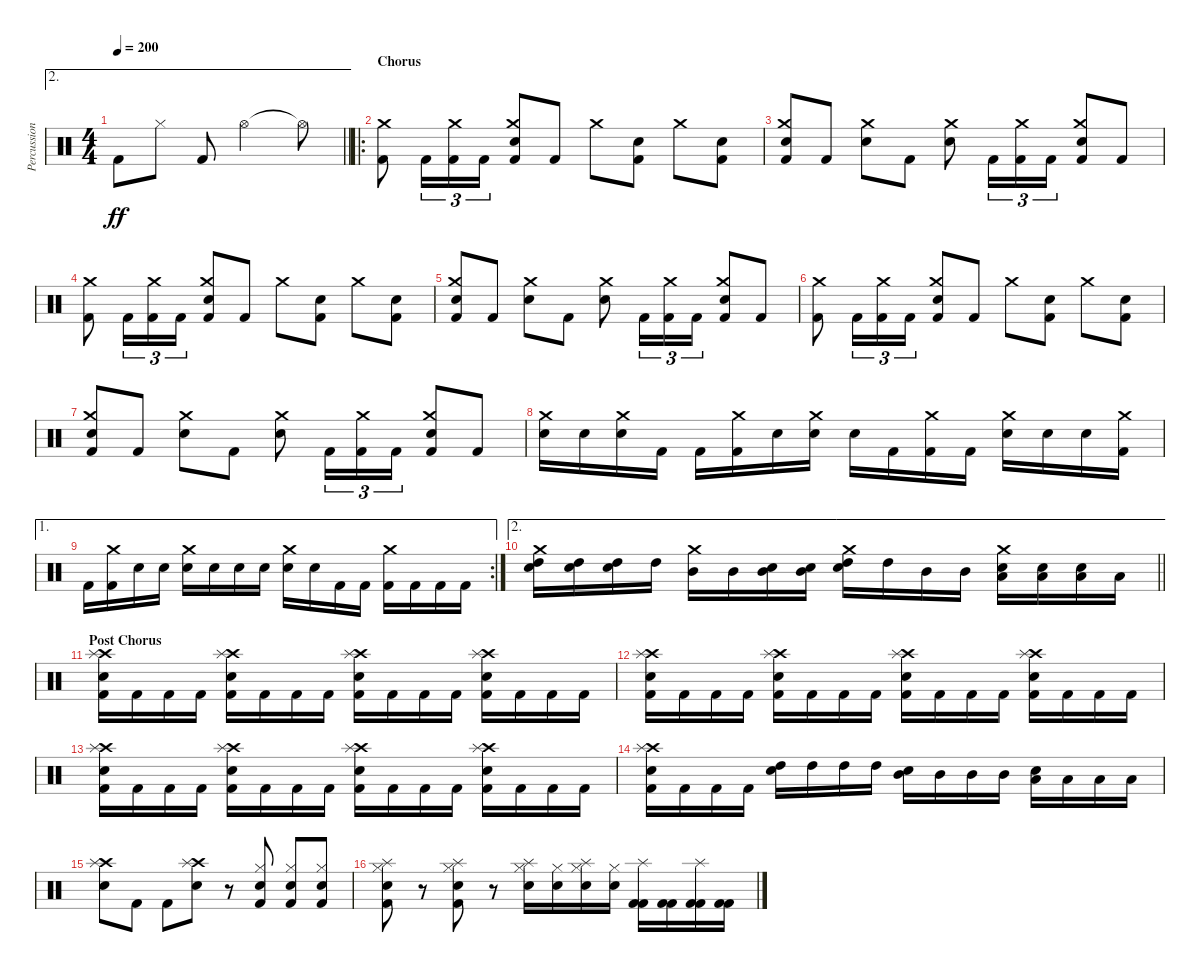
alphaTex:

\track ("Percussion" "Percussion") {instrument percussion}
\staff {score}
\articulation defaults
\ae 2
\ts (4 4)
\tempo 200
\clef neutral
\barLineRight lightlight
\ks c "Kick (hit) 2".8{dy ff} "Hi-Hat (closed)".8 "Kick (hit) 2".8 "Hi-Hat (open)".2 "Hi-Hat (open)"{t}.8
|
\ro
\section ("" "Chorus")
("Crash medium (hit)" "Kick (hit) 2").8 "Kick (hit) 2".16{tu (3 2)} ("Crash medium (hit)" "Kick (hit) 2").16{tu (3 2)} "Kick (hit) 2".16{tu (3 2)} ("Crash medium (hit)" "Electric Snare (hit)" "Kick (hit) 2").8 "Kick (hit) 2".8 "Crash medium (hit)".8 ("Electric Snare (hit)" "Kick (hit) 2").8 "Crash medium (hit)".8 ("Electric Snare (hit)" "Kick (hit) 2").8 |
("Crash medium (hit)" "Electric Snare (hit)" "Kick (hit) 2").8 "Kick (hit) 2".8 ("Crash medium (hit)" "Electric Snare (hit)").8 "Kick (hit) 2".8 ("Crash medium (hit)" "Electric Snare (hit)").8 "Kick (hit) 2".16{tu (3 2)} ("Crash medium (hit)" "Kick (hit) 2").16{tu (3 2)} "Kick (hit) 2".16{tu (3 2)} ("Crash medium (hit)" "Electric Snare (hit)" "Kick (hit) 2").8 "Kick (hit) 2".8 |
("Crash medium (hit)" "Kick (hit) 2").8 "Kick (hit) 2".16{tu (3 2)} ("Crash medium (hit)" "Kick (hit) 2").16{tu (3 2)} "Kick (hit) 2".16{tu (3 2)} ("Crash medium (hit)" "Electric Snare (hit)" "Kick (hit) 2").8 "Kick (hit) 2".8 "Crash medium (hit)".8 ("Electric Snare (hit)" "Kick (hit) 2").8 "Crash medium (hit)".8 ("Electric Snare (hit)" "Kick (hit) 2").8 |
("Crash medium (hit)" "Electric Snare (hit)" "Kick (hit) 2").8 "Kick (hit) 2".8 ("Crash medium (hit)" "Electric Snare (hit)").8 "Kick (hit) 2".8 ("Crash medium (hit)" "Electric Snare (hit)").8 "Kick (hit) 2".16{tu (3 2)} ("Crash medium (hit)" "Kick (hit) 2").16{tu (3 2)} "Kick (hit) 2".16{tu (3 2)} ("Crash medium (hit)" "Electric Snare (hit)" "Kick (hit) 2").8 "Kick (hit) 2".8 |
("Crash medium (hit)" "Kick (hit) 2").8 "Kick (hit) 2".16{tu (3 2)} ("Crash medium (hit)" "Kick (hit) 2").16{tu (3 2)} "Kick (hit) 2".16{tu (3 2)} ("Crash medium (hit)" "Electric Snare (hit)" "Kick (hit) 2").8 "Kick (hit) 2".8 "Crash medium (hit)".8 ("Electric Snare (hit)" "Kick (hit) 2").8 "Crash medium (hit)".8 ("Electric Snare (hit)" "Kick (hit) 2").8 |
("Crash medium (hit)" "Electric Snare (hit)" "Kick (hit) 2").8 "Kick (hit) 2".8 ("Crash medium (hit)" "Electric Snare (hit)").8 "Kick (hit) 2".8 ("Crash medium (hit)" "Electric Snare (hit)").8 "Kick (hit) 2".16{tu (3 2)} ("Crash medium (hit)" "Kick (hit) 2").16{tu (3 2)} "Kick (hit) 2".16{tu (3 2)} ("Crash medium (hit)" "Electric Snare (hit)" "Kick (hit) 2").8 "Kick (hit) 2".8 |
("Crash medium (hit)" "Electric Snare (hit)").16 "Electric Snare (hit)".16 ("Crash medium (hit)" "Electric Snare (hit)").16 "Kick (hit) 2".16 "Kick (hit) 2".16 ("Crash medium (hit)" "Kick (hit) 2").16 "Electric Snare (hit)".16 ("Crash medium (hit)" "Electric Snare (hit)").16 "Electric Snare (hit)".16 "Kick (hit) 2".16 ("Crash medium (hit)" "Kick (hit) 2").16 "Kick (hit) 2".16 ("Crash medium (hit)" "Electric Snare (hit)").16 "Electric Snare (hit)".16 "Electric Snare (hit)".16 ("Crash medium (hit)" "Kick (hit) 2").16 |
\ae 1
\rc 2 "Kick (hit) 2".16
("Crash medium (hit)" "Kick (hit) 2").16 "Electric Snare (hit)".16 "Electric Snare (hit)".16 ("Crash medium (hit)" "Electric Snare (hit)").16 "Electric Snare (hit)".16 "Electric Snare (hit)".16 "Electric Snare (hit)".16 ("Crash medium (hit)" "Electric Snare (hit)").16 "Electric Snare (hit)".16 "Kick (hit) 2".16 "Kick (hit) 2".16 ("Crash medium (hit)" "Kick (hit) 2").16 "Kick (hit) 2".16 "Kick (hit) 2".16 "Kick (hit) 2".16 |
\ae 2
\barLineRight lightlight
("Crash medium (hit)" "High Tom (hit)" "Electric Snare (hit)").16 ("High Tom (hit)" "Electric Snare (hit)").16 ("High Tom (hit)" "Electric Snare (hit)").16 "High Tom (hit)".16 ("Crash medium (hit)" "Mid Tom (hit)").16 "Mid Tom (hit)".16 ("Mid Tom (hit)" "Electric Snare (hit)").16 ("Mid Tom (hit)" "Electric Snare (hit)").16 ("Crash medium (hit)" "High Tom (hit)" "Electric Snare (hit)").16 "High Tom (hit)".16 "Mid Tom (hit)".16 "Mid Tom (hit)".16 ("Crash medium (hit)" "Low Tom (hit)" "Electric Snare (hit)").16 ("Low Tom (hit)" "Electric Snare (hit)").16 ("Low Tom (hit)" "Electric Snare (hit)").16 "Low Tom (hit)".16 |
\section ("" "Post Chorus")
("Crash high (hit)" "Splash (hit)" "Electric Snare (hit)" "Kick (hit) 2").16 "Kick (hit) 2".16 "Kick (hit) 2".16 "Kick (hit) 2".16 ("Crash high (hit)" "Splash (hit)" "Electric Snare (hit)" "Kick (hit) 2").16 "Kick (hit) 2".16 "Kick (hit) 2".16 "Kick (hit) 2".16 ("Crash high (hit)" "Splash (hit)" "Electric Snare (hit)" "Kick (hit) 2").16 "Kick (hit) 2".16 "Kick (hit) 2".16 "Kick (hit) 2".16 ("Crash high (hit)" "Splash (hit)" "Electric Snare (hit)" "Kick (hit) 2").16 "Kick (hit) 2".16 "Kick (hit) 2".16 "Kick (hit) 2".16 |
("Crash high (hit)" "Splash (hit)" "Electric Snare (hit)" "Kick (hit) 2").16 "Kick (hit) 2".16 "Kick (hit) 2".16 "Kick (hit) 2".16 ("Crash high (hit)" "Splash (hit)" "Electric Snare (hit)" "Kick (hit) 2").16 "Kick (hit) 2".16 "Kick (hit) 2".16 "Kick (hit) 2".16 ("Crash high (hit)" "Splash (hit)" "Electric Snare (hit)" "Kick (hit) 2").16 "Kick (hit) 2".16 "Kick (hit) 2".16 "Kick (hit) 2".16 ("Crash high (hit)" "Splash (hit)" "Electric Snare (hit)" "Kick (hit) 2").16 "Kick (hit) 2".16 "Kick (hit) 2".16 "Kick (hit) 2".16 |
("Crash high (hit)" "Splash (hit)" "Electric Snare (hit)" "Kick (hit) 2").16 "Kick (hit) 2".16 "Kick (hit) 2".16 "Kick (hit) 2".16 ("Crash high (hit)" "Splash (hit)" "Electric Snare (hit)" "Kick (hit) 2").16 "Kick (hit) 2".16 "Kick (hit) 2".16 "Kick (hit) 2".16 ("Crash high (hit)" "Splash (hit)" "Electric Snare (hit)" "Kick (hit) 2").16 "Kick (hit) 2".16 "Kick (hit) 2".16 "Kick (hit) 2".16 ("Crash high (hit)" "Splash (hit)" "Electric Snare (hit)" "Kick (hit) 2").16 "Kick (hit) 2".16 "Kick (hit) 2".16 "Kick (hit) 2".16 |
("Crash high (hit)" "Splash (hit)" "Electric Snare (hit)" "Kick (hit) 2").16 "Kick (hit) 2".16 "Kick (hit) 2".16 "Kick (hit) 2".16 ("Electric Snare (hit)" "High Tom (hit)").16 "High Tom (hit)".16 "High Tom (hit)".16 "High Tom (hit)".16 ("Electric Snare (hit)" "Mid Tom (hit)").16 "Mid Tom (hit)".16 "Mid Tom (hit)".16 "Mid Tom (hit)".16 ("Electric Snare (hit)" "Low Tom (hit)").16 "Low Tom (hit)".16 "Low Tom (hit)".16 "Low Tom (hit)".16 |
("Crash high (hit)" "Splash (hit)" "Electric Snare (hit)").8 "Kick (hit) 2".8 "Kick (hit) 2".8 ("Crash high (hit)" "Splash (hit)" "Electric Snare (hit)").8 r.8 ("Hi-Hat (closed)" "Electric Snare (hit)" "Kick (hit) 2").8 ("Hi-Hat (closed)" "Electric Snare (hit)" "Kick (hit) 2").8 ("Hi-Hat (closed)" "Electric Snare (hit)" "Kick (hit) 2").8 |
("Splash (hit)" "Hi-Hat (closed)" "Electric Snare (hit)" "Kick (hit) 2").8 r.8 ("Splash (hit)" "Hi-Hat (closed)" "Electric Snare (hit)" "Kick (hit) 2").8 r.8 ("Splash (hit)" "Hi-Hat (closed)" "Electric Snare (hit)").16 ("Hi-Hat (closed)" "Electric Snare (hit)").16 ("Splash (hit)" "Hi-Hat (closed)" "Electric Snare (hit)").16 ("Hi-Hat (closed)" "Electric Snare (hit)").16 ("Splash (hit)" "Kick (hit) 2" "Kick (hit) 2").16 ("Kick (hit) 2" "Kick (hit) 2").16 ("Splash (hit)" "Kick (hit) 2" "Kick (hit) 2").16 ("Kick (hit) 2" "Kick (hit) 2").16
